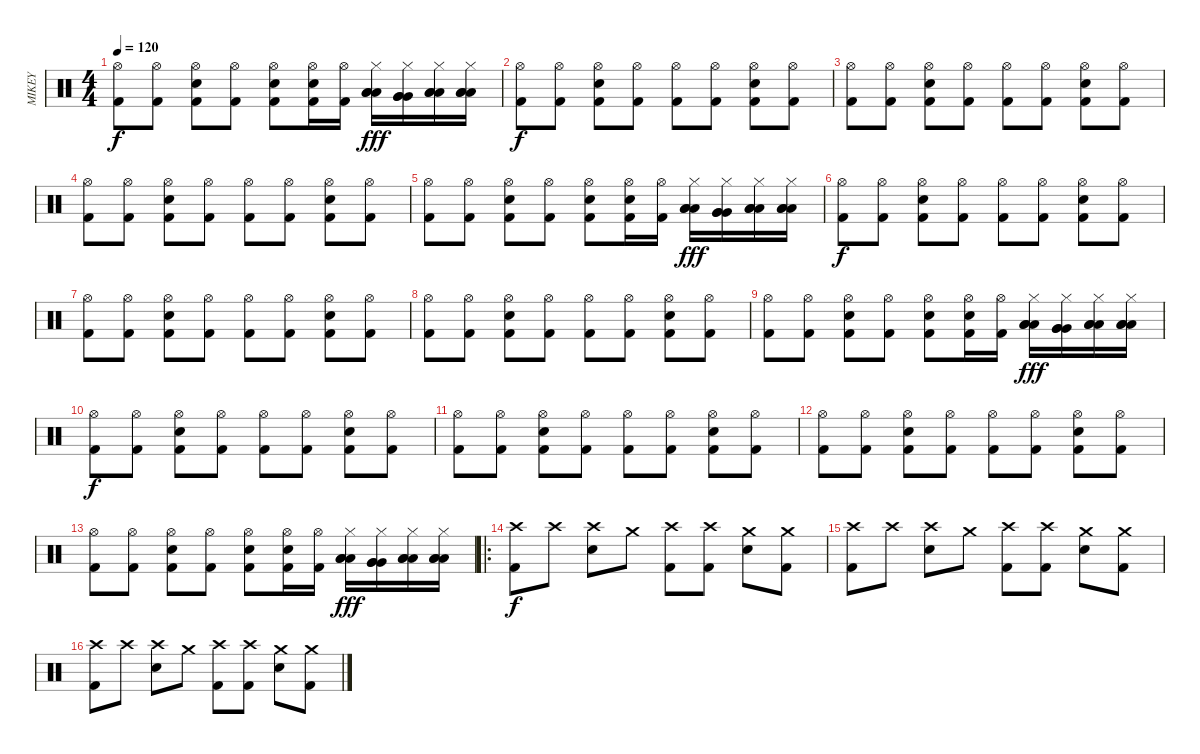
\track ("MIKEY" "MIKEY") {instrument percussion}
\staff {score}
\articulation defaults
\ts (4 4)
\tempo 120
\clef neutral
\ks c
("Hi-Hat (open)" "Kick (hit) 2").8{dy f} ("Hi-Hat (open)" "Kick (hit) 2").8 ("Snare (hit) 2" "Hi-Hat (open)" "Kick (hit) 2").8 ("Hi-Hat (open)" "Kick (hit) 2").8 ("Snare (hit) 2" "Hi-Hat (open)" "Kick (hit) 2").8 ("Snare (hit) 2" "Hi-Hat (open)" "Kick (hit) 2").16 ("Hi-Hat (open)" "Kick (hit) 2").16 ("Low Tom (hit)" "Low Tom (hit)" "Low Tom (hit)" "Hi-Hat (closed)").16{dy fff} ("Very Low Tom (hit)" "Very Low Tom (hit)" "Very Low Tom (hit)" "Hi-Hat (closed)").16 ("Low Tom (hit)" "Low Tom (hit)" "Low Tom (hit)" "Hi-Hat (closed)").16 ("Low Floor Tom (hit)" "Low Floor Tom (hit)" "Low Floor Tom (hit)" "Hi-Hat (closed)").16 |
("Hi-Hat (open)" "Kick (hit) 2").8{dy f} ("Hi-Hat (open)" "Kick (hit) 2").8 ("Snare (hit) 2" "Hi-Hat (open)" "Kick (hit) 2").8 ("Hi-Hat (open)" "Kick (hit) 2").8 ("Hi-Hat (open)" "Kick (hit) 2").8 ("Hi-Hat (open)" "Kick (hit) 2").8 ("Snare (hit) 2" "Hi-Hat (open)" "Kick (hit) 2").8 ("Hi-Hat (open)" "Kick (hit) 2").8 |
("Hi-Hat (open)" "Kick (hit) 2").8 ("Hi-Hat (open)" "Kick (hit) 2").8 ("Snare (hit) 2" "Hi-Hat (open)" "Kick (hit) 2").8 ("Hi-Hat (open)" "Kick (hit) 2").8 ("Hi-Hat (open)" "Kick (hit) 2").8 ("Hi-Hat (open)" "Kick (hit) 2").8 ("Snare (hit) 2" "Hi-Hat (open)" "Kick (hit) 2").8 ("Hi-Hat (open)" "Kick (hit) 2").8 |
("Hi-Hat (open)" "Kick (hit) 2").8 ("Hi-Hat (open)" "Kick (hit) 2").8 ("Snare (hit) 2" "Hi-Hat (open)" "Kick (hit) 2").8 ("Hi-Hat (open)" "Kick (hit) 2").8 ("Hi-Hat (open)" "Kick (hit) 2").8 ("Hi-Hat (open)" "Kick (hit) 2").8 ("Snare (hit) 2" "Hi-Hat (open)" "Kick (hit) 2").8 ("Hi-Hat (open)" "Kick (hit) 2").8 |
("Hi-Hat (open)" "Kick (hit) 2").8 ("Hi-Hat (open)" "Kick (hit) 2").8 ("Snare (hit) 2" "Hi-Hat (open)" "Kick (hit) 2").8 ("Hi-Hat (open)" "Kick (hit) 2").8 ("Snare (hit) 2" "Hi-Hat (open)" "Kick (hit) 2").8 ("Snare (hit) 2" "Hi-Hat (open)" "Kick (hit) 2").16 ("Hi-Hat (open)" "Kick (hit) 2").16 ("Low Tom (hit)" "Low Tom (hit)" "Low Tom (hit)" "Hi-Hat (closed)").16{dy fff} ("Very Low Tom (hit)" "Very Low Tom (hit)" "Very Low Tom (hit)" "Hi-Hat (closed)").16 ("Low Tom (hit)" "Low Tom (hit)" "Low Tom (hit)" "Hi-Hat (closed)").16 ("Low Floor Tom (hit)" "Low Floor Tom (hit)" "Low Floor Tom (hit)" "Hi-Hat (closed)").16 |
("Hi-Hat (open)" "Kick (hit) 2").8{dy f} ("Hi-Hat (open)" "Kick (hit) 2").8 ("Snare (hit) 2" "Hi-Hat (open)" "Kick (hit) 2").8 ("Hi-Hat (open)" "Kick (hit) 2").8 ("Hi-Hat (open)" "Kick (hit) 2").8 ("Hi-Hat (open)" "Kick (hit) 2").8 ("Snare (hit) 2" "Hi-Hat (open)" "Kick (hit) 2").8 ("Hi-Hat (open)" "Kick (hit) 2").8 |
("Hi-Hat (open)" "Kick (hit) 2").8 ("Hi-Hat (open)" "Kick (hit) 2").8 ("Snare (hit) 2" "Hi-Hat (open)" "Kick (hit) 2").8 ("Hi-Hat (open)" "Kick (hit) 2").8 ("Hi-Hat (open)" "Kick (hit) 2").8 ("Hi-Hat (open)" "Kick (hit) 2").8 ("Snare (hit) 2" "Hi-Hat (open)" "Kick (hit) 2").8 ("Hi-Hat (open)" "Kick (hit) 2").8 |
("Hi-Hat (open)" "Kick (hit) 2").8 ("Hi-Hat (open)" "Kick (hit) 2").8 ("Snare (hit) 2" "Hi-Hat (open)" "Kick (hit) 2").8 ("Hi-Hat (open)" "Kick (hit) 2").8 ("Hi-Hat (open)" "Kick (hit) 2").8 ("Hi-Hat (open)" "Kick (hit) 2").8 ("Snare (hit) 2" "Hi-Hat (open)" "Kick (hit) 2").8 ("Hi-Hat (open)" "Kick (hit) 2").8 |
("Hi-Hat (open)" "Kick (hit) 2").8 ("Hi-Hat (open)" "Kick (hit) 2").8 ("Snare (hit) 2" "Hi-Hat (open)" "Kick (hit) 2").8 ("Hi-Hat (open)" "Kick (hit) 2").8 ("Snare (hit) 2" "Hi-Hat (open)" "Kick (hit) 2").8 ("Snare (hit) 2" "Hi-Hat (open)" "Kick (hit) 2").16 ("Hi-Hat (open)" "Kick (hit) 2").16 ("Low Tom (hit)" "Low Tom (hit)" "Low Tom (hit)" "Hi-Hat (closed)").16{dy fff} ("Very Low Tom (hit)" "Very Low Tom (hit)" "Very Low Tom (hit)" "Hi-Hat (closed)").16 ("Low Tom (hit)" "Low Tom (hit)" "Low Tom (hit)" "Hi-Hat (closed)").16 ("Low Floor Tom (hit)" "Low Floor Tom (hit)" "Low Floor Tom (hit)" "Hi-Hat (closed)").16 |
("Hi-Hat (open)" "Kick (hit) 2").8{dy f} ("Hi-Hat (open)" "Kick (hit) 2").8 ("Snare (hit) 2" "Hi-Hat (open)" "Kick (hit) 2").8 ("Hi-Hat (open)" "Kick (hit) 2").8 ("Hi-Hat (open)" "Kick (hit) 2").8 ("Hi-Hat (open)" "Kick (hit) 2").8 ("Snare (hit) 2" "Hi-Hat (open)" "Kick (hit) 2").8 ("Hi-Hat (open)" "Kick (hit) 2").8 |
("Hi-Hat (open)" "Kick (hit) 2").8 ("Hi-Hat (open)" "Kick (hit) 2").8 ("Snare (hit) 2" "Hi-Hat (open)" "Kick (hit) 2").8 ("Hi-Hat (open)" "Kick (hit) 2").8 ("Hi-Hat (open)" "Kick (hit) 2").8 ("Hi-Hat (open)" "Kick (hit) 2").8 ("Snare (hit) 2" "Hi-Hat (open)" "Kick (hit) 2").8 ("Hi-Hat (open)" "Kick (hit) 2").8 |
("Hi-Hat (open)" "Kick (hit) 2").8 ("Hi-Hat (open)" "Kick (hit) 2").8 ("Snare (hit) 2" "Hi-Hat (open)" "Kick (hit) 2").8 ("Hi-Hat (open)" "Kick (hit) 2").8 ("Hi-Hat (open)" "Kick (hit) 2").8 ("Hi-Hat (open)" "Kick (hit) 2").8 ("Snare (hit) 2" "Hi-Hat (open)" "Kick (hit) 2").8 ("Hi-Hat (open)" "Kick (hit) 2").8 |
("Hi-Hat (open)" "Kick (hit) 2").8 ("Hi-Hat (open)" "Kick (hit) 2").8 ("Snare (hit) 2" "Hi-Hat (open)" "Kick (hit) 2").8 ("Hi-Hat (open)" "Kick (hit) 2").8 ("Snare (hit) 2" "Hi-Hat (open)" "Kick (hit) 2").8 ("Snare (hit) 2" "Hi-Hat (open)" "Kick (hit) 2").16 ("Hi-Hat (open)" "Kick (hit) 2").16 ("Low Tom (hit)" "Low Tom (hit)" "Low Tom (hit)" "Hi-Hat (closed)").16{dy fff} ("Very Low Tom (hit)" "Very Low Tom (hit)" "Very Low Tom (hit)" "Hi-Hat (closed)").16 ("Low Tom (hit)" "Low Tom (hit)" "Low Tom (hit)" "Hi-Hat (closed)").16 ("Low Floor Tom (hit)" "Low Floor Tom (hit)" "Low Floor Tom (hit)" "Hi-Hat (closed)").16 |
\ro
("Kick (hit) 2" "Crash high (hit)").8{dy f} "Crash high (hit)".8 ("Snare (hit) 2" "Crash high (hit)").8 "Crash medium (hit)".8 ("Kick (hit) 2" "Crash high (hit)").8 ("Kick (hit) 2" "Crash high (hit)").8 ("Snare (hit) 2" "Crash medium (hit)").8 ("Kick (hit) 2" "Crash medium (hit)").8 |
("Kick (hit) 2" "Crash high (hit)").8 "Crash high (hit)".8 ("Snare (hit) 2" "Crash high (hit)").8 "Crash medium (hit)".8 ("Kick (hit) 2" "Crash high (hit)").8 ("Kick (hit) 2" "Crash high (hit)").8 ("Snare (hit) 2" "Crash medium (hit)").8 ("Kick (hit) 2" "Crash medium (hit)").8 |
("Kick (hit) 2" "Crash high (hit)").8 "Crash high (hit)".8 ("Snare (hit) 2" "Crash high (hit)").8 "Crash medium (hit)".8 ("Kick (hit) 2" "Crash high (hit)").8 ("Kick (hit) 2" "Crash high (hit)").8 ("Snare (hit) 2" "Crash medium (hit)").8 ("Kick (hit) 2" "Crash medium (hit)").8
